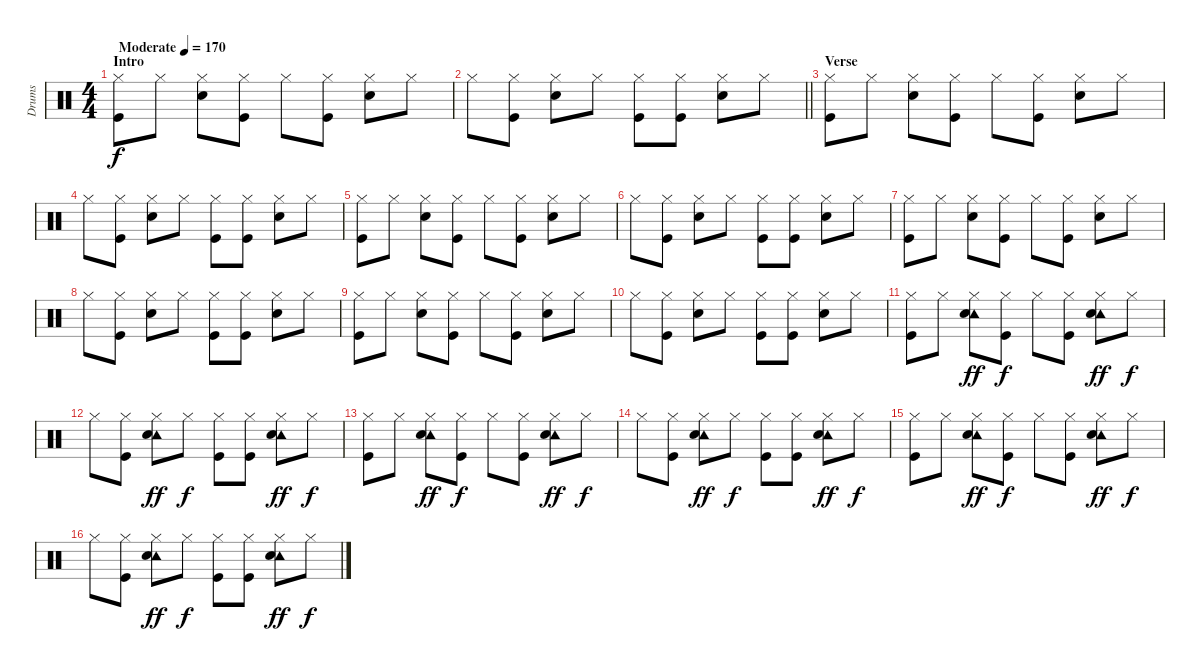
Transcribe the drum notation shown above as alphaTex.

\track ("Drums" "Drums") {instrument percussion}
\staff {score}
\articulation defaults
\ts (4 4)
\section ("" "Intro")
\tempo (170 "Moderate")
\clef neutral
\ks c
("Hi-Hat (closed)" "Kick (hit)").8{dy f} "Hi-Hat (closed)".8 ("Hi-Hat (closed)" "Snare (hit) 2").8 ("Hi-Hat (closed)" "Kick (hit)").8 "Hi-Hat (closed)".8 ("Hi-Hat (closed)" "Kick (hit)").8 ("Hi-Hat (closed)" "Snare (hit) 2").8 "Hi-Hat (closed)".8 |
\barLineRight lightlight "Hi-Hat (closed)".8
("Hi-Hat (closed)" "Kick (hit)").8 ("Hi-Hat (closed)" "Snare (hit) 2").8 "Hi-Hat (closed)".8 ("Hi-Hat (closed)" "Kick (hit)").8 ("Hi-Hat (closed)" "Kick (hit)").8 ("Hi-Hat (closed)" "Snare (hit) 2").8 "Hi-Hat (closed)".8 |
\section ("" "Verse")
("Hi-Hat (closed)" "Kick (hit)").8 "Hi-Hat (closed)".8 ("Hi-Hat (closed)" "Snare (hit) 2").8 ("Hi-Hat (closed)" "Kick (hit)").8 "Hi-Hat (closed)".8 ("Hi-Hat (closed)" "Kick (hit)").8 ("Hi-Hat (closed)" "Snare (hit) 2").8 "Hi-Hat (closed)".8 |
"Hi-Hat (closed)".8 ("Hi-Hat (closed)" "Kick (hit)").8 ("Hi-Hat (closed)" "Snare (hit) 2").8 "Hi-Hat (closed)".8 ("Hi-Hat (closed)" "Kick (hit)").8 ("Hi-Hat (closed)" "Kick (hit)").8 ("Hi-Hat (closed)" "Snare (hit) 2").8 "Hi-Hat (closed)".8 |
("Hi-Hat (closed)" "Kick (hit)").8 "Hi-Hat (closed)".8 ("Hi-Hat (closed)" "Snare (hit) 2").8 ("Hi-Hat (closed)" "Kick (hit)").8 "Hi-Hat (closed)".8 ("Hi-Hat (closed)" "Kick (hit)").8 ("Hi-Hat (closed)" "Snare (hit) 2").8 "Hi-Hat (closed)".8 |
"Hi-Hat (closed)".8 ("Hi-Hat (closed)" "Kick (hit)").8 ("Hi-Hat (closed)" "Snare (hit) 2").8 "Hi-Hat (closed)".8 ("Hi-Hat (closed)" "Kick (hit)").8 ("Hi-Hat (closed)" "Kick (hit)").8 ("Hi-Hat (closed)" "Snare (hit) 2").8 "Hi-Hat (closed)".8 |
("Hi-Hat (closed)" "Kick (hit)").8 "Hi-Hat (closed)".8 ("Hi-Hat (closed)" "Snare (hit) 2").8 ("Hi-Hat (closed)" "Kick (hit)").8 "Hi-Hat (closed)".8 ("Hi-Hat (closed)" "Kick (hit)").8 ("Hi-Hat (closed)" "Snare (hit) 2").8 "Hi-Hat (closed)".8 |
"Hi-Hat (closed)".8 ("Hi-Hat (closed)" "Kick (hit)").8 ("Hi-Hat (closed)" "Snare (hit) 2").8 "Hi-Hat (closed)".8 ("Hi-Hat (closed)" "Kick (hit)").8 ("Hi-Hat (closed)" "Kick (hit)").8 ("Hi-Hat (closed)" "Snare (hit) 2").8 "Hi-Hat (closed)".8 |
("Hi-Hat (closed)" "Kick (hit)").8 "Hi-Hat (closed)".8 ("Hi-Hat (closed)" "Snare (hit) 2").8 ("Hi-Hat (closed)" "Kick (hit)").8 "Hi-Hat (closed)".8 ("Hi-Hat (closed)" "Kick (hit)").8 ("Hi-Hat (closed)" "Snare (hit) 2").8 "Hi-Hat (closed)".8 |
"Hi-Hat (closed)".8 ("Hi-Hat (closed)" "Kick (hit)").8 ("Hi-Hat (closed)" "Snare (hit) 2").8 "Hi-Hat (closed)".8 ("Hi-Hat (closed)" "Kick (hit)").8 ("Hi-Hat (closed)" "Kick (hit)").8 ("Hi-Hat (closed)" "Snare (hit) 2").8 "Hi-Hat (closed)".8 |
("Hi-Hat (closed)" "Kick (hit)").8 "Hi-Hat (closed)".8 ("Tambourine (hit)" "Hi-Hat (closed)" "Snare (hit) 2").8{dy ff} ("Hi-Hat (closed)" "Kick (hit)").8{dy f} "Hi-Hat (closed)".8 ("Hi-Hat (closed)" "Kick (hit)").8 ("Tambourine (hit)" "Hi-Hat (closed)" "Snare (hit) 2").8{dy ff} "Hi-Hat (closed)".8{dy f} |
"Hi-Hat (closed)".8 ("Hi-Hat (closed)" "Kick (hit)").8 ("Tambourine (hit)" "Hi-Hat (closed)" "Snare (hit) 2").8{dy ff} "Hi-Hat (closed)".8{dy f} ("Hi-Hat (closed)" "Kick (hit)").8 ("Hi-Hat (closed)" "Kick (hit)").8 ("Tambourine (hit)" "Hi-Hat (closed)" "Snare (hit) 2").8{dy ff} "Hi-Hat (closed)".8{dy f} |
("Hi-Hat (closed)" "Kick (hit)").8 "Hi-Hat (closed)".8 ("Tambourine (hit)" "Hi-Hat (closed)" "Snare (hit) 2").8{dy ff} ("Hi-Hat (closed)" "Kick (hit)").8{dy f} "Hi-Hat (closed)".8 ("Hi-Hat (closed)" "Kick (hit)").8 ("Tambourine (hit)" "Hi-Hat (closed)" "Snare (hit) 2").8{dy ff} "Hi-Hat (closed)".8{dy f} |
"Hi-Hat (closed)".8 ("Hi-Hat (closed)" "Kick (hit)").8 ("Tambourine (hit)" "Hi-Hat (closed)" "Snare (hit) 2").8{dy ff} "Hi-Hat (closed)".8{dy f} ("Hi-Hat (closed)" "Kick (hit)").8 ("Hi-Hat (closed)" "Kick (hit)").8 ("Tambourine (hit)" "Hi-Hat (closed)" "Snare (hit) 2").8{dy ff} "Hi-Hat (closed)".8{dy f} |
("Hi-Hat (closed)" "Kick (hit)").8 "Hi-Hat (closed)".8 ("Tambourine (hit)" "Hi-Hat (closed)" "Snare (hit) 2").8{dy ff} ("Hi-Hat (closed)" "Kick (hit)").8{dy f} "Hi-Hat (closed)".8 ("Hi-Hat (closed)" "Kick (hit)").8 ("Tambourine (hit)" "Hi-Hat (closed)" "Snare (hit) 2").8{dy ff} "Hi-Hat (closed)".8{dy f} |
"Hi-Hat (closed)".8 ("Hi-Hat (closed)" "Kick (hit)").8 ("Tambourine (hit)" "Hi-Hat (closed)" "Snare (hit) 2").8{dy ff} "Hi-Hat (closed)".8{dy f} ("Hi-Hat (closed)" "Kick (hit)").8 ("Hi-Hat (closed)" "Kick (hit)").8 ("Tambourine (hit)" "Hi-Hat (closed)" "Snare (hit) 2").8{dy ff} "Hi-Hat (closed)".8{dy f}
